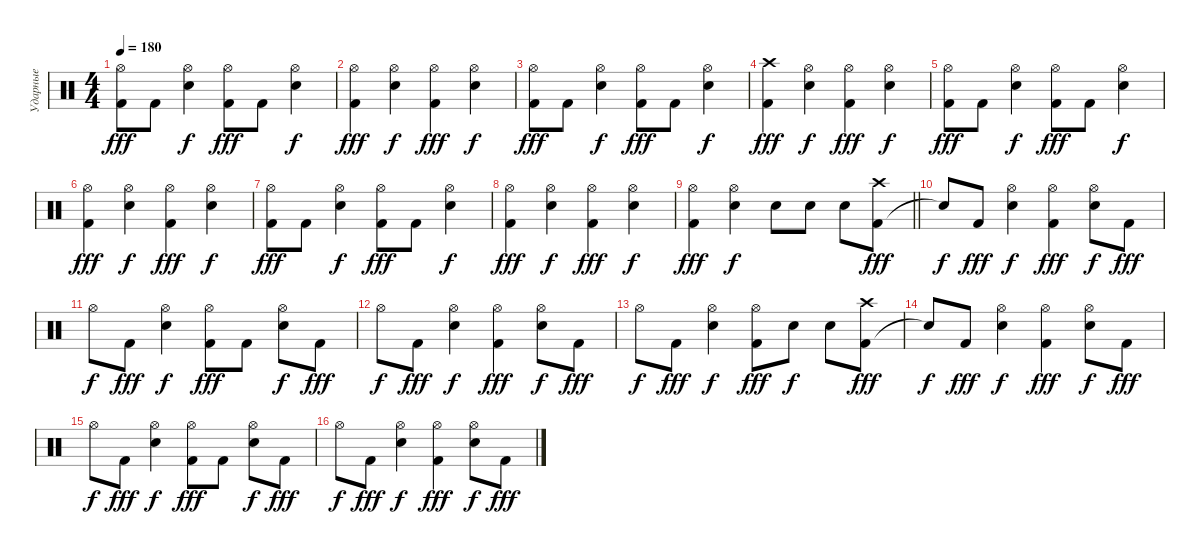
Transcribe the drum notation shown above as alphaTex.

\track ("Ударные" "Ударные") {instrument percussion}
\staff {score}
\articulation defaults
\ts (4 4)
\tempo 180
\clef neutral
\ks c
("Kick (hit) 2" "Hi-Hat (open)").8{dy fff} "Kick (hit) 2".8 ("Snare (hit) 2" "Hi-Hat (open)").4{dy f} ("Kick (hit) 2" "Hi-Hat (open)").8{dy fff} "Kick (hit) 2".8 ("Snare (hit) 2" "Hi-Hat (open)").4{dy f} |
("Kick (hit) 2" "Hi-Hat (open)").4{dy fff} ("Snare (hit) 2" "Hi-Hat (open)").4{dy f} ("Kick (hit) 2" "Hi-Hat (open)").4{dy fff} ("Snare (hit) 2" "Hi-Hat (open)").4{dy f} |
("Kick (hit) 2" "Hi-Hat (open)").8{dy fff} "Kick (hit) 2".8 ("Snare (hit) 2" "Hi-Hat (open)").4{dy f} ("Kick (hit) 2" "Hi-Hat (open)").8{dy fff} "Kick (hit) 2".8 ("Snare (hit) 2" "Hi-Hat (open)").4{dy f} |
("Kick (hit) 2" "Crash high (hit)").4{dy fff} ("Snare (hit) 2" "Hi-Hat (open)").4{dy f} ("Kick (hit) 2" "Hi-Hat (open)").4{dy fff} ("Snare (hit) 2" "Hi-Hat (open)").4{dy f} |
("Kick (hit) 2" "Hi-Hat (open)").8{dy fff} "Kick (hit) 2".8 ("Snare (hit) 2" "Hi-Hat (open)").4{dy f} ("Kick (hit) 2" "Hi-Hat (open)").8{dy fff} "Kick (hit) 2".8 ("Snare (hit) 2" "Hi-Hat (open)").4{dy f} |
("Kick (hit) 2" "Hi-Hat (open)").4{dy fff} ("Snare (hit) 2" "Hi-Hat (open)").4{dy f} ("Kick (hit) 2" "Hi-Hat (open)").4{dy fff} ("Snare (hit) 2" "Hi-Hat (open)").4{dy f} |
("Kick (hit) 2" "Hi-Hat (open)").8{dy fff} "Kick (hit) 2".8 ("Snare (hit) 2" "Hi-Hat (open)").4{dy f} ("Kick (hit) 2" "Hi-Hat (open)").8{dy fff} "Kick (hit) 2".8 ("Snare (hit) 2" "Hi-Hat (open)").4{dy f} |
("Kick (hit) 2" "Hi-Hat (open)").4{dy fff} ("Snare (hit) 2" "Hi-Hat (open)").4{dy f} ("Kick (hit) 2" "Hi-Hat (open)").4{dy fff} ("Snare (hit) 2" "Hi-Hat (open)").4{dy f} |
\barLineRight lightlight
("Kick (hit) 2" "Hi-Hat (open)").4{dy fff} ("Snare (hit) 2" "Hi-Hat (open)").4{dy f} "Snare (hit) 2".8 "Snare (hit) 2".8 "Snare (hit) 2".8 ("Kick (hit) 2" "Crash high (hit)").8{dy fff} |
"Snare (hit)"{t}.8{dy f} "Kick (hit) 2".8{dy fff} ("Snare (hit) 2" "Hi-Hat (open)").4{dy f} ("Kick (hit) 2" "Hi-Hat (open)").4{dy fff} ("Snare (hit) 2" "Hi-Hat (open)").8{dy f} "Kick (hit) 2".8{dy fff} |
"Hi-Hat (open)".8{dy f} "Kick (hit) 2".8{dy fff} ("Snare (hit) 2" "Hi-Hat (open)").4{dy f} ("Kick (hit) 2" "Hi-Hat (open)").8{dy fff} "Kick (hit) 2".8 ("Snare (hit) 2" "Hi-Hat (open)").8{dy f} "Kick (hit) 2".8{dy fff} |
"Hi-Hat (open)".8{dy f} "Kick (hit) 2".8{dy fff} ("Snare (hit) 2" "Hi-Hat (open)").4{dy f} ("Kick (hit) 2" "Hi-Hat (open)").4{dy fff} ("Snare (hit) 2" "Hi-Hat (open)").8{dy f} "Kick (hit) 2".8{dy fff} |
"Hi-Hat (open)".8{dy f} "Kick (hit) 2".8{dy fff} ("Snare (hit) 2" "Hi-Hat (open)").4{dy f} ("Kick (hit) 2" "Hi-Hat (open)").8{dy fff} "Snare (hit) 2".8{dy f} "Snare (hit) 2".8 ("Kick (hit) 2" "Crash high (hit)").8{dy fff} |
"Snare (hit)"{t}.8{dy f} "Kick (hit) 2".8{dy fff} ("Snare (hit) 2" "Hi-Hat (open)").4{dy f} ("Kick (hit) 2" "Hi-Hat (open)").4{dy fff} ("Snare (hit) 2" "Hi-Hat (open)").8{dy f} "Kick (hit) 2".8{dy fff} |
"Hi-Hat (open)".8{dy f} "Kick (hit) 2".8{dy fff} ("Snare (hit) 2" "Hi-Hat (open)").4{dy f} ("Kick (hit) 2" "Hi-Hat (open)").8{dy fff} "Kick (hit) 2".8 ("Snare (hit) 2" "Hi-Hat (open)").8{dy f} "Kick (hit) 2".8{dy fff} |
"Hi-Hat (open)".8{dy f} "Kick (hit) 2".8{dy fff} ("Snare (hit) 2" "Hi-Hat (open)").4{dy f} ("Kick (hit) 2" "Hi-Hat (open)").4{dy fff} ("Snare (hit) 2" "Hi-Hat (open)").8{dy f} "Kick (hit) 2".8{dy fff}
